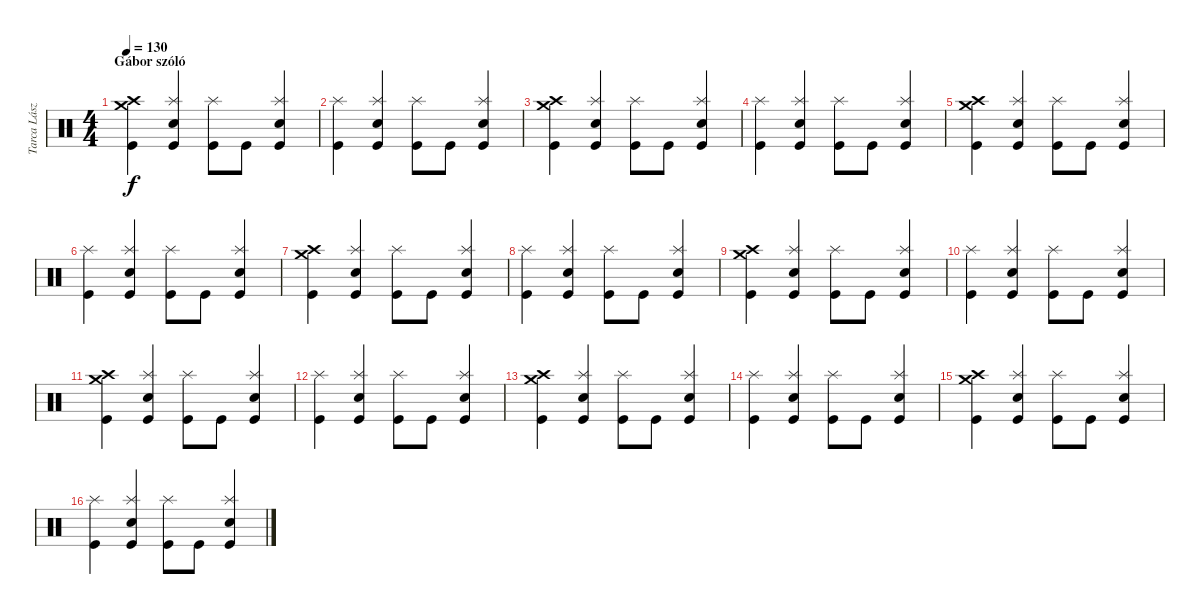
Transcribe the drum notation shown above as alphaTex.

\track ("Tarca László" "Tarca Lász") {instrument percussion}
\staff {score}
\articulation defaults
\ts (4 4)
\section ("" "Gábor szóló")
\tempo 130
\clef neutral
\ks c
("Crash high (hit)" "Crash medium (hit)" "Kick (hit)").4{dy f} ("Splash (hit)" "Snare (hit) 2" "Kick (hit)").4 ("Splash (hit)" "Kick (hit)").8 "Kick (hit)".8 ("Splash (hit)" "Snare (hit) 2" "Kick (hit)").4 |
("Splash (hit)" "Kick (hit)").4 ("Splash (hit)" "Snare (hit) 2" "Kick (hit)").4 ("Splash (hit)" "Kick (hit)").8 "Kick (hit)".8 ("Splash (hit)" "Snare (hit) 2" "Kick (hit)").4 |
("Crash high (hit)" "Crash medium (hit)" "Kick (hit)").4 ("Splash (hit)" "Snare (hit) 2" "Kick (hit)").4 ("Splash (hit)" "Kick (hit)").8 "Kick (hit)".8 ("Splash (hit)" "Snare (hit) 2" "Kick (hit)").4 |
("Splash (hit)" "Kick (hit)").4 ("Splash (hit)" "Snare (hit) 2" "Kick (hit)").4 ("Splash (hit)" "Kick (hit)").8 "Kick (hit)".8 ("Splash (hit)" "Snare (hit) 2" "Kick (hit)").4 |
("Crash high (hit)" "Crash medium (hit)" "Kick (hit)").4 ("Splash (hit)" "Snare (hit) 2" "Kick (hit)").4 ("Splash (hit)" "Kick (hit)").8 "Kick (hit)".8 ("Splash (hit)" "Snare (hit) 2" "Kick (hit)").4 |
("Splash (hit)" "Kick (hit)").4 ("Splash (hit)" "Snare (hit) 2" "Kick (hit)").4 ("Splash (hit)" "Kick (hit)").8 "Kick (hit)".8 ("Splash (hit)" "Snare (hit) 2" "Kick (hit)").4 |
("Crash high (hit)" "Crash medium (hit)" "Kick (hit)").4 ("Splash (hit)" "Snare (hit) 2" "Kick (hit)").4 ("Splash (hit)" "Kick (hit)").8 "Kick (hit)".8 ("Splash (hit)" "Snare (hit) 2" "Kick (hit)").4 |
("Splash (hit)" "Kick (hit)").4 ("Splash (hit)" "Snare (hit) 2" "Kick (hit)").4 ("Splash (hit)" "Kick (hit)").8 "Kick (hit)".8 ("Splash (hit)" "Snare (hit) 2" "Kick (hit)").4 |
("Crash high (hit)" "Crash medium (hit)" "Kick (hit)").4 ("Splash (hit)" "Snare (hit) 2" "Kick (hit)").4 ("Splash (hit)" "Kick (hit)").8 "Kick (hit)".8 ("Splash (hit)" "Snare (hit) 2" "Kick (hit)").4 |
("Splash (hit)" "Kick (hit)").4 ("Splash (hit)" "Snare (hit) 2" "Kick (hit)").4 ("Splash (hit)" "Kick (hit)").8 "Kick (hit)".8 ("Splash (hit)" "Snare (hit) 2" "Kick (hit)").4 |
("Crash high (hit)" "Crash medium (hit)" "Kick (hit)").4 ("Splash (hit)" "Snare (hit) 2" "Kick (hit)").4 ("Splash (hit)" "Kick (hit)").8 "Kick (hit)".8 ("Splash (hit)" "Snare (hit) 2" "Kick (hit)").4 |
("Splash (hit)" "Kick (hit)").4 ("Splash (hit)" "Snare (hit) 2" "Kick (hit)").4 ("Splash (hit)" "Kick (hit)").8 "Kick (hit)".8 ("Splash (hit)" "Snare (hit) 2" "Kick (hit)").4 |
("Crash high (hit)" "Crash medium (hit)" "Kick (hit)").4 ("Splash (hit)" "Snare (hit) 2" "Kick (hit)").4 ("Splash (hit)" "Kick (hit)").8 "Kick (hit)".8 ("Splash (hit)" "Snare (hit) 2" "Kick (hit)").4 |
("Splash (hit)" "Kick (hit)").4 ("Splash (hit)" "Snare (hit) 2" "Kick (hit)").4 ("Splash (hit)" "Kick (hit)").8 "Kick (hit)".8 ("Splash (hit)" "Snare (hit) 2" "Kick (hit)").4 |
("Crash high (hit)" "Crash medium (hit)" "Kick (hit)").4 ("Splash (hit)" "Snare (hit) 2" "Kick (hit)").4 ("Splash (hit)" "Kick (hit)").8 "Kick (hit)".8 ("Splash (hit)" "Snare (hit) 2" "Kick (hit)").4 |
("Splash (hit)" "Kick (hit)").4 ("Splash (hit)" "Snare (hit) 2" "Kick (hit)").4 ("Splash (hit)" "Kick (hit)").8 "Kick (hit)".8 ("Splash (hit)" "Snare (hit) 2" "Kick (hit)").4
